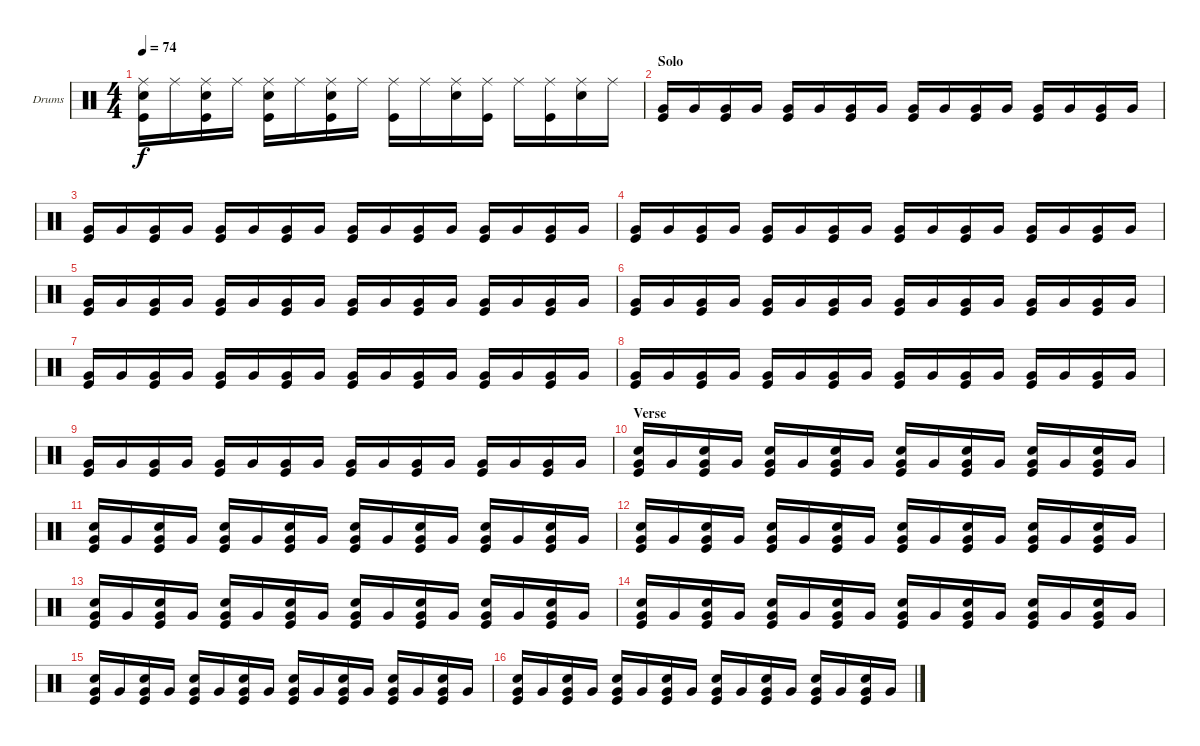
\bracketExtendMode groupsimilarinstruments
\firstSystemTrackNameOrientation horizontal
\otherSystemsTrackNameOrientation horizontal
\track ("Fabrizio" "Drums") {instrument percussion}
\staff {score}
\articulation defaults
\ts (4 4)
\tempo 74
\clef neutral
\ks c
("Ride (middle)" "Kick (hit)" "Snare (hit) 2").16{dy f} "Ride (middle)".16 ("Ride (middle)" "Kick (hit)" "Snare (hit) 2").16 "Ride (middle)".16 ("Ride (middle)" "Kick (hit)" "Snare (hit) 2").16 "Ride (middle)".16 ("Ride (middle)" "Kick (hit)" "Snare (hit) 2").16 "Ride (middle)".16 ("Ride (middle)" "Kick (hit)").16 "Ride (middle)".16 ("Ride (middle)" "Snare (hit) 2").16 ("Ride (middle)" "Kick (hit)").16 "Ride (middle)".16 ("Ride (middle)" "Kick (hit)").16 ("Ride (middle)" "Snare (hit) 2").16 "Ride (middle)".16 |
\section ("" "Solo")
("Very Low Tom (hit)" "Kick (hit)").16 "Very Low Tom (hit)".16 ("Very Low Tom (hit)" "Kick (hit)").16 "Very Low Tom (hit)".16 ("Very Low Tom (hit)" "Kick (hit)").16 "Very Low Tom (hit)".16 ("Very Low Tom (hit)" "Kick (hit)").16 "Very Low Tom (hit)".16 ("Very Low Tom (hit)" "Kick (hit)").16 "Very Low Tom (hit)".16 ("Very Low Tom (hit)" "Kick (hit)").16 "Very Low Tom (hit)".16 ("Very Low Tom (hit)" "Kick (hit)").16 "Very Low Tom (hit)".16 ("Very Low Tom (hit)" "Kick (hit)").16 "Very Low Tom (hit)".16 |
("Very Low Tom (hit)" "Kick (hit)").16 "Very Low Tom (hit)".16 ("Very Low Tom (hit)" "Kick (hit)").16 "Very Low Tom (hit)".16 ("Very Low Tom (hit)" "Kick (hit)").16 "Very Low Tom (hit)".16 ("Very Low Tom (hit)" "Kick (hit)").16 "Very Low Tom (hit)".16 ("Very Low Tom (hit)" "Kick (hit)").16 "Very Low Tom (hit)".16 ("Very Low Tom (hit)" "Kick (hit)").16 "Very Low Tom (hit)".16 ("Very Low Tom (hit)" "Kick (hit)").16 "Very Low Tom (hit)".16 ("Very Low Tom (hit)" "Kick (hit)").16 "Very Low Tom (hit)".16 |
("Very Low Tom (hit)" "Kick (hit)").16 "Very Low Tom (hit)".16 ("Very Low Tom (hit)" "Kick (hit)").16 "Very Low Tom (hit)".16 ("Very Low Tom (hit)" "Kick (hit)").16 "Very Low Tom (hit)".16 ("Very Low Tom (hit)" "Kick (hit)").16 "Very Low Tom (hit)".16 ("Very Low Tom (hit)" "Kick (hit)").16 "Very Low Tom (hit)".16 ("Very Low Tom (hit)" "Kick (hit)").16 "Very Low Tom (hit)".16 ("Very Low Tom (hit)" "Kick (hit)").16 "Very Low Tom (hit)".16 ("Very Low Tom (hit)" "Kick (hit)").16 "Very Low Tom (hit)".16 |
("Very Low Tom (hit)" "Kick (hit)").16 "Very Low Tom (hit)".16 ("Very Low Tom (hit)" "Kick (hit)").16 "Very Low Tom (hit)".16 ("Very Low Tom (hit)" "Kick (hit)").16 "Very Low Tom (hit)".16 ("Very Low Tom (hit)" "Kick (hit)").16 "Very Low Tom (hit)".16 ("Very Low Tom (hit)" "Kick (hit)").16 "Very Low Tom (hit)".16 ("Very Low Tom (hit)" "Kick (hit)").16 "Very Low Tom (hit)".16 ("Very Low Tom (hit)" "Kick (hit)").16 "Very Low Tom (hit)".16 ("Very Low Tom (hit)" "Kick (hit)").16 "Very Low Tom (hit)".16 |
("Very Low Tom (hit)" "Kick (hit)").16 "Very Low Tom (hit)".16 ("Very Low Tom (hit)" "Kick (hit)").16 "Very Low Tom (hit)".16 ("Very Low Tom (hit)" "Kick (hit)").16 "Very Low Tom (hit)".16 ("Very Low Tom (hit)" "Kick (hit)").16 "Very Low Tom (hit)".16 ("Very Low Tom (hit)" "Kick (hit)").16 "Very Low Tom (hit)".16 ("Very Low Tom (hit)" "Kick (hit)").16 "Very Low Tom (hit)".16 ("Very Low Tom (hit)" "Kick (hit)").16 "Very Low Tom (hit)".16 ("Very Low Tom (hit)" "Kick (hit)").16 "Very Low Tom (hit)".16 |
("Very Low Tom (hit)" "Kick (hit)").16 "Very Low Tom (hit)".16 ("Very Low Tom (hit)" "Kick (hit)").16 "Very Low Tom (hit)".16 ("Very Low Tom (hit)" "Kick (hit)").16 "Very Low Tom (hit)".16 ("Very Low Tom (hit)" "Kick (hit)").16 "Very Low Tom (hit)".16 ("Very Low Tom (hit)" "Kick (hit)").16 "Very Low Tom (hit)".16 ("Very Low Tom (hit)" "Kick (hit)").16 "Very Low Tom (hit)".16 ("Very Low Tom (hit)" "Kick (hit)").16 "Very Low Tom (hit)".16 ("Very Low Tom (hit)" "Kick (hit)").16 "Very Low Tom (hit)".16 |
("Very Low Tom (hit)" "Kick (hit)").16 "Very Low Tom (hit)".16 ("Very Low Tom (hit)" "Kick (hit)").16 "Very Low Tom (hit)".16 ("Very Low Tom (hit)" "Kick (hit)").16 "Very Low Tom (hit)".16 ("Very Low Tom (hit)" "Kick (hit)").16 "Very Low Tom (hit)".16 ("Very Low Tom (hit)" "Kick (hit)").16 "Very Low Tom (hit)".16 ("Very Low Tom (hit)" "Kick (hit)").16 "Very Low Tom (hit)".16 ("Very Low Tom (hit)" "Kick (hit)").16 "Very Low Tom (hit)".16 ("Very Low Tom (hit)" "Kick (hit)").16 "Very Low Tom (hit)".16 |
("Very Low Tom (hit)" "Kick (hit)").16 "Very Low Tom (hit)".16 ("Very Low Tom (hit)" "Kick (hit)").16 "Very Low Tom (hit)".16 ("Very Low Tom (hit)" "Kick (hit)").16 "Very Low Tom (hit)".16 ("Very Low Tom (hit)" "Kick (hit)").16 "Very Low Tom (hit)".16 ("Very Low Tom (hit)" "Kick (hit)").16 "Very Low Tom (hit)".16 ("Very Low Tom (hit)" "Kick (hit)").16 "Very Low Tom (hit)".16 ("Very Low Tom (hit)" "Kick (hit)").16 "Very Low Tom (hit)".16 ("Very Low Tom (hit)" "Kick (hit)").16 "Very Low Tom (hit)".16 |
\section ("" "Verse")
("Very Low Tom (hit)" "Kick (hit)" "Snare (hit) 2").16 "Very Low Tom (hit)".16 ("Very Low Tom (hit)" "Kick (hit)" "Snare (hit) 2").16 "Very Low Tom (hit)".16 ("Very Low Tom (hit)" "Kick (hit)" "Snare (hit) 2").16 "Very Low Tom (hit)".16 ("Very Low Tom (hit)" "Kick (hit)" "Snare (hit) 2").16 "Very Low Tom (hit)".16 ("Very Low Tom (hit)" "Kick (hit)" "Snare (hit) 2").16 "Very Low Tom (hit)".16 ("Very Low Tom (hit)" "Kick (hit)" "Snare (hit) 2").16 "Very Low Tom (hit)".16 ("Very Low Tom (hit)" "Kick (hit)" "Snare (hit) 2").16 "Very Low Tom (hit)".16 ("Very Low Tom (hit)" "Kick (hit)" "Snare (hit) 2").16 "Very Low Tom (hit)".16 |
("Very Low Tom (hit)" "Kick (hit)" "Snare (hit) 2").16 "Very Low Tom (hit)".16 ("Very Low Tom (hit)" "Kick (hit)" "Snare (hit) 2").16 "Very Low Tom (hit)".16 ("Very Low Tom (hit)" "Kick (hit)" "Snare (hit) 2").16 "Very Low Tom (hit)".16 ("Very Low Tom (hit)" "Kick (hit)" "Snare (hit) 2").16 "Very Low Tom (hit)".16 ("Very Low Tom (hit)" "Kick (hit)" "Snare (hit) 2").16 "Very Low Tom (hit)".16 ("Very Low Tom (hit)" "Kick (hit)" "Snare (hit) 2").16 "Very Low Tom (hit)".16 ("Very Low Tom (hit)" "Kick (hit)" "Snare (hit) 2").16 "Very Low Tom (hit)".16 ("Very Low Tom (hit)" "Kick (hit)" "Snare (hit) 2").16 "Very Low Tom (hit)".16 |
("Very Low Tom (hit)" "Kick (hit)" "Snare (hit) 2").16 "Very Low Tom (hit)".16 ("Very Low Tom (hit)" "Kick (hit)" "Snare (hit) 2").16 "Very Low Tom (hit)".16 ("Very Low Tom (hit)" "Kick (hit)" "Snare (hit) 2").16 "Very Low Tom (hit)".16 ("Very Low Tom (hit)" "Kick (hit)" "Snare (hit) 2").16 "Very Low Tom (hit)".16 ("Very Low Tom (hit)" "Kick (hit)" "Snare (hit) 2").16 "Very Low Tom (hit)".16 ("Very Low Tom (hit)" "Kick (hit)" "Snare (hit) 2").16 "Very Low Tom (hit)".16 ("Very Low Tom (hit)" "Kick (hit)" "Snare (hit) 2").16 "Very Low Tom (hit)".16 ("Very Low Tom (hit)" "Kick (hit)" "Snare (hit) 2").16 "Very Low Tom (hit)".16 |
("Very Low Tom (hit)" "Kick (hit)" "Snare (hit) 2").16 "Very Low Tom (hit)".16 ("Very Low Tom (hit)" "Kick (hit)" "Snare (hit) 2").16 "Very Low Tom (hit)".16 ("Very Low Tom (hit)" "Kick (hit)" "Snare (hit) 2").16 "Very Low Tom (hit)".16 ("Very Low Tom (hit)" "Kick (hit)" "Snare (hit) 2").16 "Very Low Tom (hit)".16 ("Very Low Tom (hit)" "Kick (hit)" "Snare (hit) 2").16 "Very Low Tom (hit)".16 ("Very Low Tom (hit)" "Kick (hit)" "Snare (hit) 2").16 "Very Low Tom (hit)".16 ("Very Low Tom (hit)" "Kick (hit)" "Snare (hit) 2").16 "Very Low Tom (hit)".16 ("Very Low Tom (hit)" "Kick (hit)" "Snare (hit) 2").16 "Very Low Tom (hit)".16 |
("Very Low Tom (hit)" "Kick (hit)" "Snare (hit) 2").16 "Very Low Tom (hit)".16 ("Very Low Tom (hit)" "Kick (hit)" "Snare (hit) 2").16 "Very Low Tom (hit)".16 ("Very Low Tom (hit)" "Kick (hit)" "Snare (hit) 2").16 "Very Low Tom (hit)".16 ("Very Low Tom (hit)" "Kick (hit)" "Snare (hit) 2").16 "Very Low Tom (hit)".16 ("Very Low Tom (hit)" "Kick (hit)" "Snare (hit) 2").16 "Very Low Tom (hit)".16 ("Very Low Tom (hit)" "Kick (hit)" "Snare (hit) 2").16 "Very Low Tom (hit)".16 ("Very Low Tom (hit)" "Kick (hit)" "Snare (hit) 2").16 "Very Low Tom (hit)".16 ("Very Low Tom (hit)" "Kick (hit)" "Snare (hit) 2").16 "Very Low Tom (hit)".16 |
("Very Low Tom (hit)" "Kick (hit)" "Snare (hit) 2").16 "Very Low Tom (hit)".16 ("Very Low Tom (hit)" "Kick (hit)" "Snare (hit) 2").16 "Very Low Tom (hit)".16 ("Very Low Tom (hit)" "Kick (hit)" "Snare (hit) 2").16 "Very Low Tom (hit)".16 ("Very Low Tom (hit)" "Kick (hit)" "Snare (hit) 2").16 "Very Low Tom (hit)".16 ("Very Low Tom (hit)" "Kick (hit)" "Snare (hit) 2").16 "Very Low Tom (hit)".16 ("Very Low Tom (hit)" "Kick (hit)" "Snare (hit) 2").16 "Very Low Tom (hit)".16 ("Very Low Tom (hit)" "Kick (hit)" "Snare (hit) 2").16 "Very Low Tom (hit)".16 ("Very Low Tom (hit)" "Kick (hit)" "Snare (hit) 2").16 "Very Low Tom (hit)".16 |
("Very Low Tom (hit)" "Kick (hit)" "Snare (hit) 2").16 "Very Low Tom (hit)".16 ("Very Low Tom (hit)" "Kick (hit)" "Snare (hit) 2").16 "Very Low Tom (hit)".16 ("Very Low Tom (hit)" "Kick (hit)" "Snare (hit) 2").16 "Very Low Tom (hit)".16 ("Very Low Tom (hit)" "Kick (hit)" "Snare (hit) 2").16 "Very Low Tom (hit)".16 ("Very Low Tom (hit)" "Kick (hit)" "Snare (hit) 2").16 "Very Low Tom (hit)".16 ("Very Low Tom (hit)" "Kick (hit)" "Snare (hit) 2").16 "Very Low Tom (hit)".16 ("Very Low Tom (hit)" "Kick (hit)" "Snare (hit) 2").16 "Very Low Tom (hit)".16 ("Very Low Tom (hit)" "Kick (hit)" "Snare (hit) 2").16 "Very Low Tom (hit)".16
